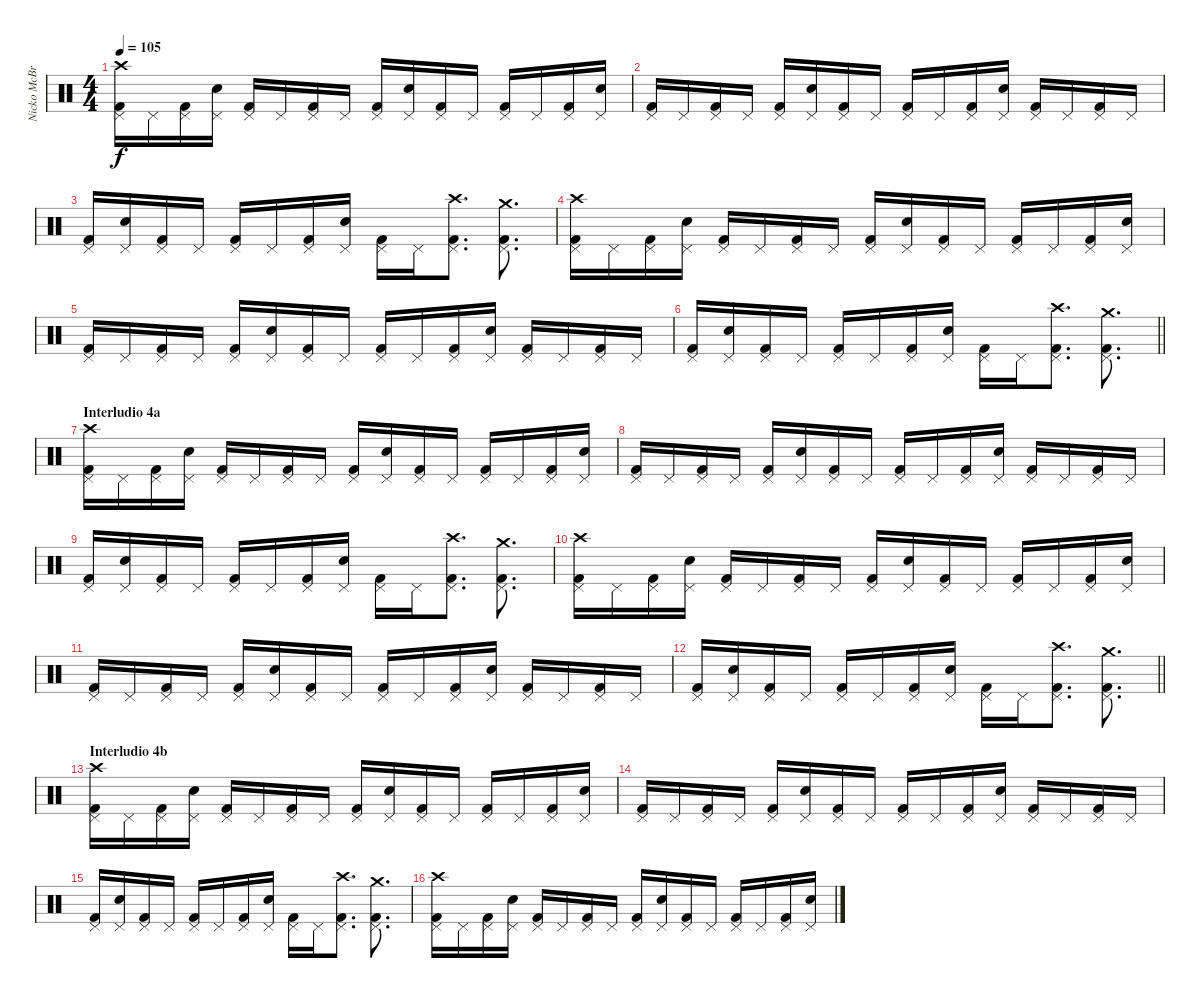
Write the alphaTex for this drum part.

\track ("Nicko McBrain" "Nicko McBr") {instrument percussion}
\staff {score}
\articulation defaults
\ts (4 4)
\tempo 105
\clef neutral
\ks c
("Kick (hit) 2" "Pedal Hi-Hat (hit)" "Crash high (hit)").16{dy f} "Pedal Hi-Hat (hit)".16 ("Kick (hit) 2" "Pedal Hi-Hat (hit)").16 ("Snare (hit) 2" "Pedal Hi-Hat (hit)").16 ("Kick (hit) 2" "Pedal Hi-Hat (hit)").16 "Pedal Hi-Hat (hit)".16 ("Kick (hit) 2" "Pedal Hi-Hat (hit)").16 "Pedal Hi-Hat (hit)".16 ("Kick (hit) 2" "Pedal Hi-Hat (hit)").16 ("Snare (hit) 2" "Pedal Hi-Hat (hit)").16 ("Kick (hit) 2" "Pedal Hi-Hat (hit)").16 "Pedal Hi-Hat (hit)".16 ("Kick (hit) 2" "Pedal Hi-Hat (hit)").16 "Pedal Hi-Hat (hit)".16 ("Kick (hit) 2" "Pedal Hi-Hat (hit)").16 ("Snare (hit) 2" "Pedal Hi-Hat (hit)").16 |
("Kick (hit) 2" "Pedal Hi-Hat (hit)").16 "Pedal Hi-Hat (hit)".16 ("Kick (hit) 2" "Pedal Hi-Hat (hit)").16 "Pedal Hi-Hat (hit)".16 ("Kick (hit) 2" "Pedal Hi-Hat (hit)").16 ("Snare (hit) 2" "Pedal Hi-Hat (hit)").16 ("Kick (hit) 2" "Pedal Hi-Hat (hit)").16 "Pedal Hi-Hat (hit)".16 ("Kick (hit) 2" "Pedal Hi-Hat (hit)").16 "Pedal Hi-Hat (hit)".16 ("Kick (hit) 2" "Pedal Hi-Hat (hit)").16 ("Snare (hit) 2" "Pedal Hi-Hat (hit)").16 ("Kick (hit) 2" "Pedal Hi-Hat (hit)").16 "Pedal Hi-Hat (hit)".16 ("Kick (hit) 2" "Pedal Hi-Hat (hit)").16 "Pedal Hi-Hat (hit)".16 |
("Kick (hit) 2" "Pedal Hi-Hat (hit)").16 ("Snare (hit) 2" "Pedal Hi-Hat (hit)").16 ("Kick (hit) 2" "Pedal Hi-Hat (hit)").16 "Pedal Hi-Hat (hit)".16 ("Kick (hit) 2" "Pedal Hi-Hat (hit)").16 "Pedal Hi-Hat (hit)".16 ("Kick (hit) 2" "Pedal Hi-Hat (hit)").16 ("Snare (hit) 2" "Pedal Hi-Hat (hit)").16 ("Kick (hit) 2" "Pedal Hi-Hat (hit)").16 "Pedal Hi-Hat (hit)".16 ("Kick (hit) 2" "Pedal Hi-Hat (hit)" "Crash high (hit)").8{d} ("Kick (hit) 2" "Pedal Hi-Hat (hit)" "Crash medium (hit)").8{d} |
("Kick (hit) 2" "Pedal Hi-Hat (hit)" "Crash high (hit)").16 "Pedal Hi-Hat (hit)".16 ("Kick (hit) 2" "Pedal Hi-Hat (hit)").16 ("Snare (hit) 2" "Pedal Hi-Hat (hit)").16 ("Kick (hit) 2" "Pedal Hi-Hat (hit)").16 "Pedal Hi-Hat (hit)".16 ("Kick (hit) 2" "Pedal Hi-Hat (hit)").16 "Pedal Hi-Hat (hit)".16 ("Kick (hit) 2" "Pedal Hi-Hat (hit)").16 ("Snare (hit) 2" "Pedal Hi-Hat (hit)").16 ("Kick (hit) 2" "Pedal Hi-Hat (hit)").16 "Pedal Hi-Hat (hit)".16 ("Kick (hit) 2" "Pedal Hi-Hat (hit)").16 "Pedal Hi-Hat (hit)".16 ("Kick (hit) 2" "Pedal Hi-Hat (hit)").16 ("Snare (hit) 2" "Pedal Hi-Hat (hit)").16 |
("Kick (hit) 2" "Pedal Hi-Hat (hit)").16 "Pedal Hi-Hat (hit)".16 ("Kick (hit) 2" "Pedal Hi-Hat (hit)").16 "Pedal Hi-Hat (hit)".16 ("Kick (hit) 2" "Pedal Hi-Hat (hit)").16 ("Snare (hit) 2" "Pedal Hi-Hat (hit)").16 ("Kick (hit) 2" "Pedal Hi-Hat (hit)").16 "Pedal Hi-Hat (hit)".16 ("Kick (hit) 2" "Pedal Hi-Hat (hit)").16 "Pedal Hi-Hat (hit)".16 ("Kick (hit) 2" "Pedal Hi-Hat (hit)").16 ("Snare (hit) 2" "Pedal Hi-Hat (hit)").16 ("Kick (hit) 2" "Pedal Hi-Hat (hit)").16 "Pedal Hi-Hat (hit)".16 ("Kick (hit) 2" "Pedal Hi-Hat (hit)").16 "Pedal Hi-Hat (hit)".16 |
\barLineRight lightlight
("Kick (hit) 2" "Pedal Hi-Hat (hit)").16 ("Snare (hit) 2" "Pedal Hi-Hat (hit)").16 ("Kick (hit) 2" "Pedal Hi-Hat (hit)").16 "Pedal Hi-Hat (hit)".16 ("Kick (hit) 2" "Pedal Hi-Hat (hit)").16 "Pedal Hi-Hat (hit)".16 ("Kick (hit) 2" "Pedal Hi-Hat (hit)").16 ("Snare (hit) 2" "Pedal Hi-Hat (hit)").16 ("Kick (hit) 2" "Pedal Hi-Hat (hit)").16 "Pedal Hi-Hat (hit)".16 ("Kick (hit) 2" "Pedal Hi-Hat (hit)" "Crash high (hit)").8{d} ("Kick (hit) 2" "Pedal Hi-Hat (hit)" "Crash medium (hit)").8{d} |
\section ("" "Interludio 4a")
("Kick (hit) 2" "Pedal Hi-Hat (hit)" "Crash high (hit)").16 "Pedal Hi-Hat (hit)".16 ("Kick (hit) 2" "Pedal Hi-Hat (hit)").16 ("Snare (hit) 2" "Pedal Hi-Hat (hit)").16 ("Kick (hit) 2" "Pedal Hi-Hat (hit)").16 "Pedal Hi-Hat (hit)".16 ("Kick (hit) 2" "Pedal Hi-Hat (hit)").16 "Pedal Hi-Hat (hit)".16 ("Kick (hit) 2" "Pedal Hi-Hat (hit)").16 ("Snare (hit) 2" "Pedal Hi-Hat (hit)").16 ("Kick (hit) 2" "Pedal Hi-Hat (hit)").16 "Pedal Hi-Hat (hit)".16 ("Kick (hit) 2" "Pedal Hi-Hat (hit)").16 "Pedal Hi-Hat (hit)".16 ("Kick (hit) 2" "Pedal Hi-Hat (hit)").16 ("Snare (hit) 2" "Pedal Hi-Hat (hit)").16 |
("Kick (hit) 2" "Pedal Hi-Hat (hit)").16 "Pedal Hi-Hat (hit)".16 ("Kick (hit) 2" "Pedal Hi-Hat (hit)").16 "Pedal Hi-Hat (hit)".16 ("Kick (hit) 2" "Pedal Hi-Hat (hit)").16 ("Snare (hit) 2" "Pedal Hi-Hat (hit)").16 ("Kick (hit) 2" "Pedal Hi-Hat (hit)").16 "Pedal Hi-Hat (hit)".16 ("Kick (hit) 2" "Pedal Hi-Hat (hit)").16 "Pedal Hi-Hat (hit)".16 ("Kick (hit) 2" "Pedal Hi-Hat (hit)").16 ("Snare (hit) 2" "Pedal Hi-Hat (hit)").16 ("Kick (hit) 2" "Pedal Hi-Hat (hit)").16 "Pedal Hi-Hat (hit)".16 ("Kick (hit) 2" "Pedal Hi-Hat (hit)").16 "Pedal Hi-Hat (hit)".16 |
("Kick (hit) 2" "Pedal Hi-Hat (hit)").16 ("Snare (hit) 2" "Pedal Hi-Hat (hit)").16 ("Kick (hit) 2" "Pedal Hi-Hat (hit)").16 "Pedal Hi-Hat (hit)".16 ("Kick (hit) 2" "Pedal Hi-Hat (hit)").16 "Pedal Hi-Hat (hit)".16 ("Kick (hit) 2" "Pedal Hi-Hat (hit)").16 ("Snare (hit) 2" "Pedal Hi-Hat (hit)").16 ("Kick (hit) 2" "Pedal Hi-Hat (hit)").16 "Pedal Hi-Hat (hit)".16 ("Kick (hit) 2" "Pedal Hi-Hat (hit)" "Crash high (hit)").8{d} ("Kick (hit) 2" "Pedal Hi-Hat (hit)" "Crash medium (hit)").8{d} |
("Kick (hit) 2" "Pedal Hi-Hat (hit)" "Crash high (hit)").16 "Pedal Hi-Hat (hit)".16 ("Kick (hit) 2" "Pedal Hi-Hat (hit)").16 ("Snare (hit) 2" "Pedal Hi-Hat (hit)").16 ("Kick (hit) 2" "Pedal Hi-Hat (hit)").16 "Pedal Hi-Hat (hit)".16 ("Kick (hit) 2" "Pedal Hi-Hat (hit)").16 "Pedal Hi-Hat (hit)".16 ("Kick (hit) 2" "Pedal Hi-Hat (hit)").16 ("Snare (hit) 2" "Pedal Hi-Hat (hit)").16 ("Kick (hit) 2" "Pedal Hi-Hat (hit)").16 "Pedal Hi-Hat (hit)".16 ("Kick (hit) 2" "Pedal Hi-Hat (hit)").16 "Pedal Hi-Hat (hit)".16 ("Kick (hit) 2" "Pedal Hi-Hat (hit)").16 ("Snare (hit) 2" "Pedal Hi-Hat (hit)").16 |
("Kick (hit) 2" "Pedal Hi-Hat (hit)").16 "Pedal Hi-Hat (hit)".16 ("Kick (hit) 2" "Pedal Hi-Hat (hit)").16 "Pedal Hi-Hat (hit)".16 ("Kick (hit) 2" "Pedal Hi-Hat (hit)").16 ("Snare (hit) 2" "Pedal Hi-Hat (hit)").16 ("Kick (hit) 2" "Pedal Hi-Hat (hit)").16 "Pedal Hi-Hat (hit)".16 ("Kick (hit) 2" "Pedal Hi-Hat (hit)").16 "Pedal Hi-Hat (hit)".16 ("Kick (hit) 2" "Pedal Hi-Hat (hit)").16 ("Snare (hit) 2" "Pedal Hi-Hat (hit)").16 ("Kick (hit) 2" "Pedal Hi-Hat (hit)").16 "Pedal Hi-Hat (hit)".16 ("Kick (hit) 2" "Pedal Hi-Hat (hit)").16 "Pedal Hi-Hat (hit)".16 |
\barLineRight lightlight
("Kick (hit) 2" "Pedal Hi-Hat (hit)").16 ("Snare (hit) 2" "Pedal Hi-Hat (hit)").16 ("Kick (hit) 2" "Pedal Hi-Hat (hit)").16 "Pedal Hi-Hat (hit)".16 ("Kick (hit) 2" "Pedal Hi-Hat (hit)").16 "Pedal Hi-Hat (hit)".16 ("Kick (hit) 2" "Pedal Hi-Hat (hit)").16 ("Snare (hit) 2" "Pedal Hi-Hat (hit)").16 ("Kick (hit) 2" "Pedal Hi-Hat (hit)").16 "Pedal Hi-Hat (hit)".16 ("Kick (hit) 2" "Pedal Hi-Hat (hit)" "Crash high (hit)").8{d} ("Kick (hit) 2" "Pedal Hi-Hat (hit)" "Crash medium (hit)").8{d} |
\section ("" "Interludio 4b")
("Kick (hit) 2" "Pedal Hi-Hat (hit)" "Crash high (hit)").16 "Pedal Hi-Hat (hit)".16 ("Kick (hit) 2" "Pedal Hi-Hat (hit)").16 ("Snare (hit) 2" "Pedal Hi-Hat (hit)").16 ("Kick (hit) 2" "Pedal Hi-Hat (hit)").16 "Pedal Hi-Hat (hit)".16 ("Kick (hit) 2" "Pedal Hi-Hat (hit)").16 "Pedal Hi-Hat (hit)".16 ("Kick (hit) 2" "Pedal Hi-Hat (hit)").16 ("Snare (hit) 2" "Pedal Hi-Hat (hit)").16 ("Kick (hit) 2" "Pedal Hi-Hat (hit)").16 "Pedal Hi-Hat (hit)".16 ("Kick (hit) 2" "Pedal Hi-Hat (hit)").16 "Pedal Hi-Hat (hit)".16 ("Kick (hit) 2" "Pedal Hi-Hat (hit)").16 ("Snare (hit) 2" "Pedal Hi-Hat (hit)").16 |
("Kick (hit) 2" "Pedal Hi-Hat (hit)").16 "Pedal Hi-Hat (hit)".16 ("Kick (hit) 2" "Pedal Hi-Hat (hit)").16 "Pedal Hi-Hat (hit)".16 ("Kick (hit) 2" "Pedal Hi-Hat (hit)").16 ("Snare (hit) 2" "Pedal Hi-Hat (hit)").16 ("Kick (hit) 2" "Pedal Hi-Hat (hit)").16 "Pedal Hi-Hat (hit)".16 ("Kick (hit) 2" "Pedal Hi-Hat (hit)").16 "Pedal Hi-Hat (hit)".16 ("Kick (hit) 2" "Pedal Hi-Hat (hit)").16 ("Snare (hit) 2" "Pedal Hi-Hat (hit)").16 ("Kick (hit) 2" "Pedal Hi-Hat (hit)").16 "Pedal Hi-Hat (hit)".16 ("Kick (hit) 2" "Pedal Hi-Hat (hit)").16 "Pedal Hi-Hat (hit)".16 |
("Kick (hit) 2" "Pedal Hi-Hat (hit)").16 ("Snare (hit) 2" "Pedal Hi-Hat (hit)").16 ("Kick (hit) 2" "Pedal Hi-Hat (hit)").16 "Pedal Hi-Hat (hit)".16 ("Kick (hit) 2" "Pedal Hi-Hat (hit)").16 "Pedal Hi-Hat (hit)".16 ("Kick (hit) 2" "Pedal Hi-Hat (hit)").16 ("Snare (hit) 2" "Pedal Hi-Hat (hit)").16 ("Kick (hit) 2" "Pedal Hi-Hat (hit)").16 "Pedal Hi-Hat (hit)".16 ("Kick (hit) 2" "Pedal Hi-Hat (hit)" "Crash high (hit)").8{d} ("Kick (hit) 2" "Pedal Hi-Hat (hit)" "Crash medium (hit)").8{d} |
("Kick (hit) 2" "Pedal Hi-Hat (hit)" "Crash high (hit)").16 "Pedal Hi-Hat (hit)".16 ("Kick (hit) 2" "Pedal Hi-Hat (hit)").16 ("Snare (hit) 2" "Pedal Hi-Hat (hit)").16 ("Kick (hit) 2" "Pedal Hi-Hat (hit)").16 "Pedal Hi-Hat (hit)".16 ("Kick (hit) 2" "Pedal Hi-Hat (hit)").16 "Pedal Hi-Hat (hit)".16 ("Kick (hit) 2" "Pedal Hi-Hat (hit)").16 ("Snare (hit) 2" "Pedal Hi-Hat (hit)").16 ("Kick (hit) 2" "Pedal Hi-Hat (hit)").16 "Pedal Hi-Hat (hit)".16 ("Kick (hit) 2" "Pedal Hi-Hat (hit)").16 "Pedal Hi-Hat (hit)".16 ("Kick (hit) 2" "Pedal Hi-Hat (hit)").16 ("Snare (hit) 2" "Pedal Hi-Hat (hit)").16
